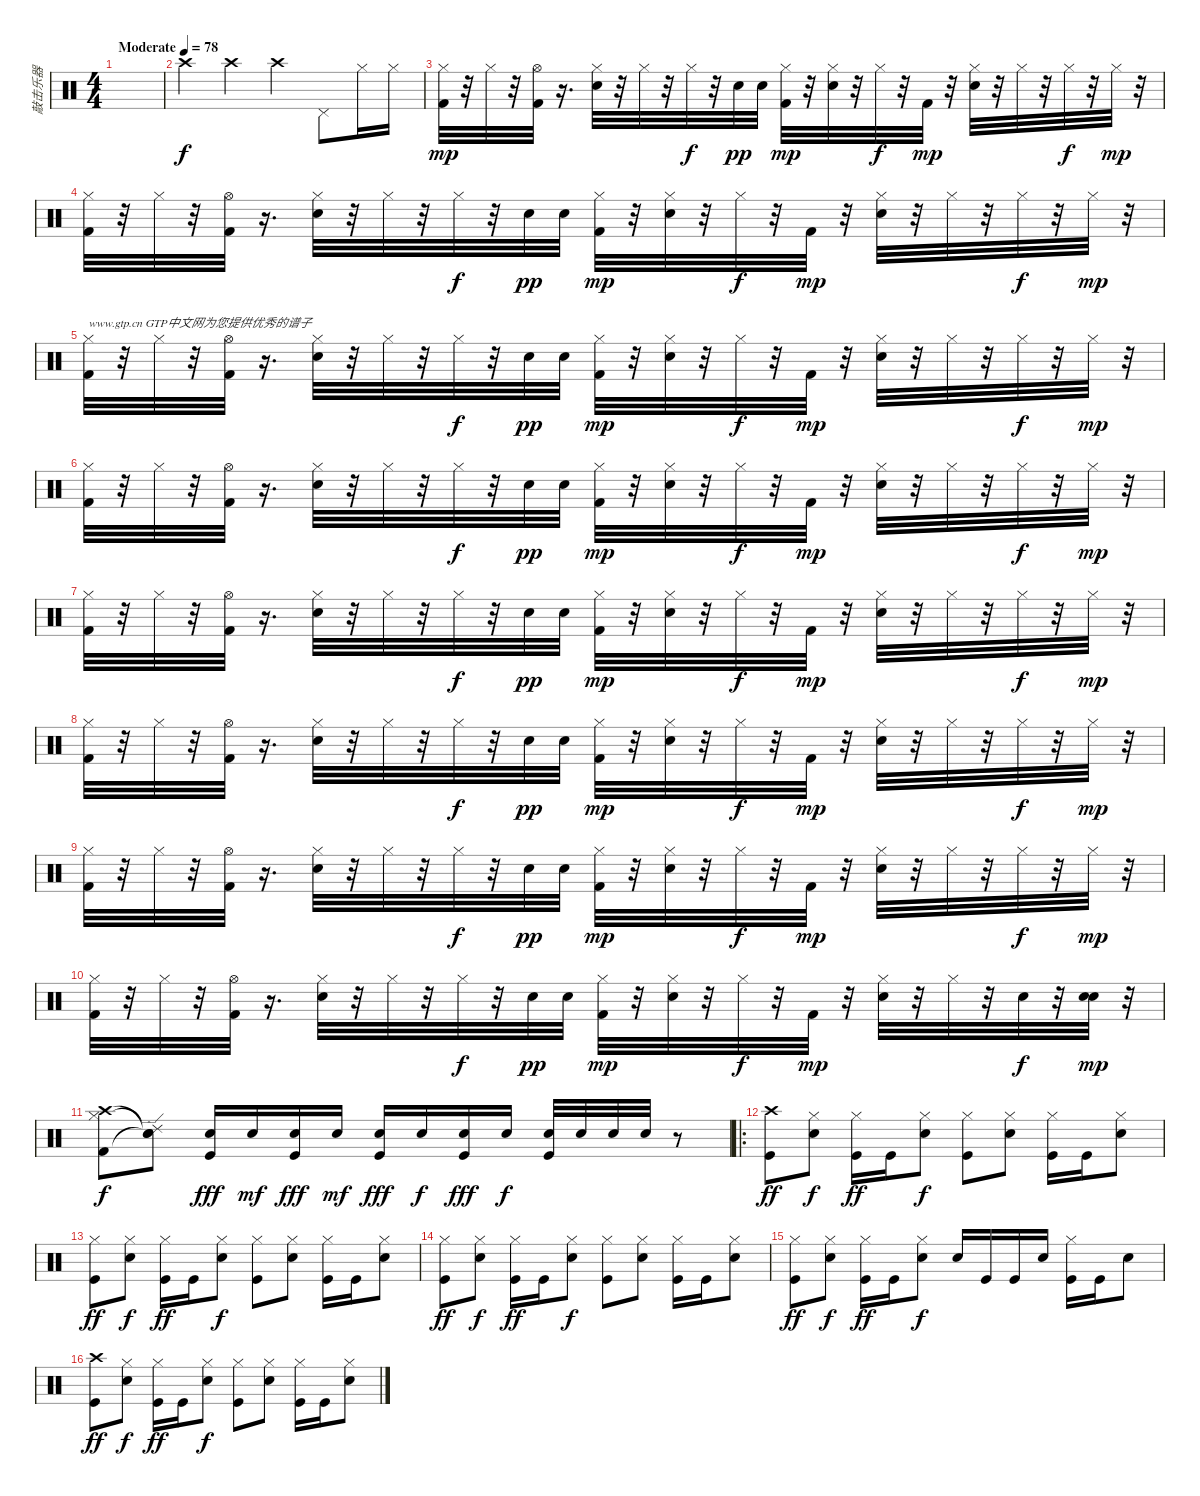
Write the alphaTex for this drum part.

\track ("敲击乐器" "敲击乐器") {instrument percussion}
\staff {score}
\articulation defaults
\ts (4 4)
\tempo (78 "Moderate")
\clef neutral
\ks c
|
"Crash high (hit)".4 "Crash high (hit)".4 "Crash high (hit)".4 "Pedal Hi-Hat (hit)".8 "Hi-Hat (closed)".16 "Hi-Hat (closed)".16 |
("Hi-Hat (closed)" "Kick (hit) 2").32{dy mp} r.32 "Hi-Hat (closed)".32 r.32 ("Kick (hit) 2" "Hi-Hat (open)").32 r.16{d} ("Hi-Hat (closed)" "Electric Snare (hit)").32 r.32 "Hi-Hat (closed)".32 r.32 "Hi-Hat (closed)".32{dy f} r.32 "Electric Snare (hit)".32{dy pp} "Electric Snare (hit)".32 ("Hi-Hat (closed)" "Kick (hit) 2").32{dy mp} r.32 ("Hi-Hat (closed)" "Electric Snare (hit)").32 r.32 "Hi-Hat (closed)".32{dy f} r.32 "Kick (hit) 2".32{dy mp} r.32 ("Electric Snare (hit)" "Hi-Hat (closed)").32 r.32 "Hi-Hat (closed)".32 r.32 "Hi-Hat (closed)".32{dy f} r.32 "Hi-Hat (closed)".32{dy mp} r.32 |
("Hi-Hat (closed)" "Kick (hit) 2").32 r.32 "Hi-Hat (closed)".32 r.32 ("Hi-Hat (open)" "Kick (hit) 2").32 r.16{d} ("Hi-Hat (closed)" "Electric Snare (hit)").32 r.32 "Hi-Hat (closed)".32 r.32 "Hi-Hat (closed)".32{dy f} r.32 "Electric Snare (hit)".32{dy pp} "Electric Snare (hit)".32 ("Kick (hit) 2" "Hi-Hat (closed)").32{dy mp} r.32 ("Hi-Hat (closed)" "Electric Snare (hit)").32 r.32 "Hi-Hat (closed)".32{dy f} r.32 "Kick (hit) 2".32{dy mp} r.32 ("Hi-Hat (closed)" "Electric Snare (hit)").32 r.32 "Hi-Hat (closed)".32 r.32 "Hi-Hat (closed)".32{dy f} r.32 "Hi-Hat (closed)".32{dy mp} r.32 |
("Hi-Hat (closed)" "Kick (hit) 2").32{txt "www.gtp.cn GTP中文网为您提供优秀的谱子"} r.32 "Hi-Hat (closed)".32 r.32 ("Hi-Hat (open)" "Kick (hit) 2").32 r.16{d} ("Hi-Hat (closed)" "Electric Snare (hit)").32 r.32 "Hi-Hat (closed)".32 r.32 "Hi-Hat (closed)".32{dy f} r.32 "Electric Snare (hit)".32{dy pp} "Electric Snare (hit)".32 ("Kick (hit) 2" "Hi-Hat (closed)").32{dy mp} r.32 ("Hi-Hat (closed)" "Electric Snare (hit)").32 r.32 "Hi-Hat (closed)".32{dy f} r.32 "Kick (hit) 2".32{dy mp} r.32 ("Hi-Hat (closed)" "Electric Snare (hit)").32 r.32 "Hi-Hat (closed)".32 r.32 "Hi-Hat (closed)".32{dy f} r.32 "Hi-Hat (closed)".32{dy mp} r.32 |
("Hi-Hat (closed)" "Kick (hit) 2").32 r.32 "Hi-Hat (closed)".32 r.32 ("Hi-Hat (open)" "Kick (hit) 2").32 r.16{d} ("Hi-Hat (closed)" "Electric Snare (hit)").32 r.32 "Hi-Hat (closed)".32 r.32 "Hi-Hat (closed)".32{dy f} r.32 "Electric Snare (hit)".32{dy pp} "Electric Snare (hit)".32 ("Hi-Hat (closed)" "Kick (hit) 2").32{dy mp} r.32 ("Hi-Hat (closed)" "Electric Snare (hit)").32 r.32 "Hi-Hat (closed)".32{dy f} r.32 "Kick (hit) 2".32{dy mp} r.32 ("Electric Snare (hit)" "Hi-Hat (closed)").32 r.32 "Hi-Hat (closed)".32 r.32 "Hi-Hat (closed)".32{dy f} r.32 "Hi-Hat (closed)".32{dy mp} r.32 |
("Hi-Hat (closed)" "Kick (hit) 2").32 r.32 "Hi-Hat (closed)".32 r.32 ("Kick (hit) 2" "Hi-Hat (open)").32 r.16{d} ("Hi-Hat (closed)" "Electric Snare (hit)").32 r.32 "Hi-Hat (closed)".32 r.32 "Hi-Hat (closed)".32{dy f} r.32 "Electric Snare (hit)".32{dy pp} "Electric Snare (hit)".32 ("Hi-Hat (closed)" "Kick (hit) 2").32{dy mp} r.32 ("Hi-Hat (closed)" "Electric Snare (hit)").32 r.32 "Hi-Hat (closed)".32{dy f} r.32 "Kick (hit) 2".32{dy mp} r.32 ("Electric Snare (hit)" "Hi-Hat (closed)").32 r.32 "Hi-Hat (closed)".32 r.32 "Hi-Hat (closed)".32{dy f} r.32 "Hi-Hat (closed)".32{dy mp} r.32 |
("Hi-Hat (closed)" "Kick (hit) 2").32 r.32 "Hi-Hat (closed)".32 r.32 ("Hi-Hat (open)" "Kick (hit) 2").32 r.16{d} ("Hi-Hat (closed)" "Electric Snare (hit)").32 r.32 "Hi-Hat (closed)".32 r.32 "Hi-Hat (closed)".32{dy f} r.32 "Electric Snare (hit)".32{dy pp} "Electric Snare (hit)".32 ("Kick (hit) 2" "Hi-Hat (closed)").32{dy mp} r.32 ("Hi-Hat (closed)" "Electric Snare (hit)").32 r.32 "Hi-Hat (closed)".32{dy f} r.32 "Kick (hit) 2".32{dy mp} r.32 ("Hi-Hat (closed)" "Electric Snare (hit)").32 r.32 "Hi-Hat (closed)".32 r.32 "Hi-Hat (closed)".32{dy f} r.32 "Hi-Hat (closed)".32{dy mp} r.32 |
("Hi-Hat (closed)" "Kick (hit) 2").32 r.32 "Hi-Hat (closed)".32 r.32 ("Hi-Hat (open)" "Kick (hit) 2").32 r.16{d} ("Hi-Hat (closed)" "Electric Snare (hit)").32 r.32 "Hi-Hat (closed)".32 r.32 "Hi-Hat (closed)".32{dy f} r.32 "Electric Snare (hit)".32{dy pp} "Electric Snare (hit)".32 ("Kick (hit) 2" "Hi-Hat (closed)").32{dy mp} r.32 ("Hi-Hat (closed)" "Electric Snare (hit)").32 r.32 "Hi-Hat (closed)".32{dy f} r.32 "Kick (hit) 2".32{dy mp} r.32 ("Hi-Hat (closed)" "Electric Snare (hit)").32 r.32 "Hi-Hat (closed)".32 r.32 "Hi-Hat (closed)".32{dy f} r.32 "Hi-Hat (closed)".32{dy mp} r.32 |
("Hi-Hat (closed)" "Kick (hit) 2").32 r.32 "Hi-Hat (closed)".32 r.32 ("Hi-Hat (open)" "Kick (hit) 2").32 r.16{d} ("Hi-Hat (closed)" "Electric Snare (hit)").32 r.32 "Hi-Hat (closed)".32 r.32 "Hi-Hat (closed)".32{dy f} r.32 "Electric Snare (hit)".32{dy pp} "Electric Snare (hit)".32 ("Hi-Hat (closed)" "Kick (hit) 2").32{dy mp} r.32 ("Hi-Hat (closed)" "Electric Snare (hit)").32 r.32 "Hi-Hat (closed)".32{dy f} r.32 "Kick (hit) 2".32{dy mp} r.32 ("Electric Snare (hit)" "Hi-Hat (closed)").32 r.32 "Hi-Hat (closed)".32 r.32 "Snare (hit) 2".32{dy f} r.32 ("Snare (hit) 2" "Electric Snare (hit)").32{dy mp} r.32 |
("Kick (hit) 2" "Hi-Hat (closed)" "Crash high (hit)").8{dy f} ("Snare (hit)"{t} "Ride (edge) 2"{t} "Snare (hit)"{t}).8 ("Electric Snare (hit)" "Kick (hit)").16{dy fff} "Electric Snare (hit)".16{dy mf} ("Electric Snare (hit)" "Kick (hit)").16{dy fff} "Electric Snare (hit)".16{dy mf} ("Electric Snare (hit)" "Kick (hit)").16{dy fff} "Electric Snare (hit)".16{dy f} ("Electric Snare (hit)" "Kick (hit)").16{dy fff} "Electric Snare (hit)".16{dy f} ("Electric Snare (hit)" "Kick (hit)").32 "Electric Snare (hit)".32 "Electric Snare (hit)".32 "Electric Snare (hit)".32 r.8 |
\ro
("Crash high (hit)" "Kick (hit)").8{dy ff} ("Electric Snare (hit)" "Hi-Hat (closed)").8{dy f} ("Hi-Hat (closed)" "Kick (hit)").16{dy ff} "Kick (hit)".16 ("Hi-Hat (closed)" "Electric Snare (hit)").8{dy f} ("Hi-Hat (closed)" "Kick (hit)").8 ("Hi-Hat (closed)" "Electric Snare (hit)").8 ("Hi-Hat (closed)" "Kick (hit)").16 "Kick (hit)".16 ("Electric Snare (hit)" "Hi-Hat (closed)").8 |
("Hi-Hat (closed)" "Kick (hit)").8{dy ff} ("Electric Snare (hit)" "Hi-Hat (closed)").8{dy f} ("Hi-Hat (closed)" "Kick (hit)").16{dy ff} "Kick (hit)".16 ("Hi-Hat (closed)" "Electric Snare (hit)").8{dy f} ("Hi-Hat (closed)" "Kick (hit)").8 ("Hi-Hat (closed)" "Electric Snare (hit)").8 ("Hi-Hat (closed)" "Kick (hit)").16 "Kick (hit)".16 ("Electric Snare (hit)" "Hi-Hat (closed)").8 |
("Hi-Hat (closed)" "Kick (hit)").8{dy ff} ("Electric Snare (hit)" "Hi-Hat (closed)").8{dy f} ("Hi-Hat (closed)" "Kick (hit)").16{dy ff} "Kick (hit)".16 ("Hi-Hat (closed)" "Electric Snare (hit)").8{dy f} ("Hi-Hat (closed)" "Kick (hit)").8 ("Hi-Hat (closed)" "Electric Snare (hit)").8 ("Hi-Hat (closed)" "Kick (hit)").16 "Kick (hit)".16 ("Electric Snare (hit)" "Hi-Hat (closed)").8 |
("Hi-Hat (closed)" "Kick (hit)").8{dy ff} ("Electric Snare (hit)" "Hi-Hat (closed)").8{dy f} ("Hi-Hat (closed)" "Kick (hit)").16{dy ff} "Kick (hit)".16 ("Hi-Hat (closed)" "Electric Snare (hit)").8{dy f} "Electric Snare (hit)".16 "Kick (hit)".16 "Kick (hit)".16 "Electric Snare (hit)".16 ("Hi-Hat (closed)" "Kick (hit)").16 "Kick (hit)".16 "Electric Snare (hit)".8 |
("Crash high (hit)" "Kick (hit)").8{dy ff} ("Electric Snare (hit)" "Hi-Hat (closed)").8{dy f} ("Hi-Hat (closed)" "Kick (hit)").16{dy ff} "Kick (hit)".16 ("Hi-Hat (closed)" "Electric Snare (hit)").8{dy f} ("Hi-Hat (closed)" "Kick (hit)").8 ("Hi-Hat (closed)" "Electric Snare (hit)").8 ("Hi-Hat (closed)" "Kick (hit)").16 "Kick (hit)".16 ("Electric Snare (hit)" "Hi-Hat (closed)").8
